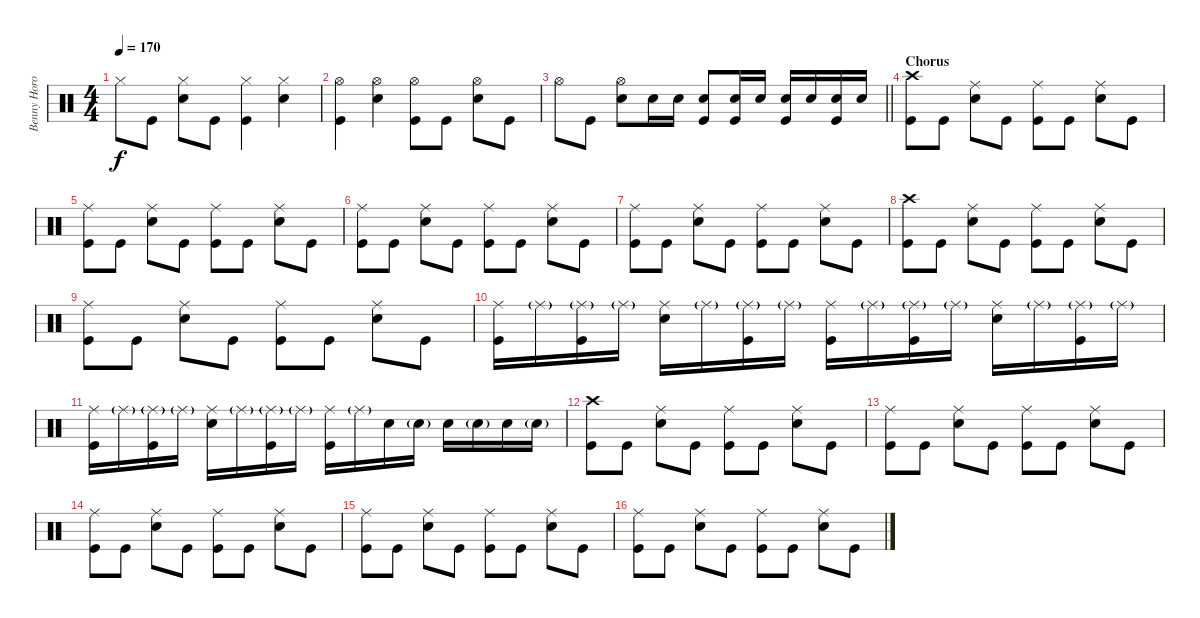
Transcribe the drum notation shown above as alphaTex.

\track ("Benny Horowitz" "Benny Horo") {instrument percussion}
\staff {score}
\articulation defaults
\ts (4 4)
\tempo 170
\clef neutral
\ks c "Hi-Hat (closed)".8{dy f} "Kick (hit)".8
("Snare (hit) 2" "Hi-Hat (closed)").8 "Kick (hit)".8 ("Kick (hit)" "Hi-Hat (closed)").4 ("Snare (hit) 2" "Hi-Hat (closed)").4 |
("Kick (hit)" "Hi-Hat (open)").4 ("Snare (hit) 2" "Hi-Hat (open)").4 ("Kick (hit)" "Hi-Hat (open)").8 "Kick (hit)".8 ("Snare (hit) 2" "Hi-Hat (open)").8 "Kick (hit)".8 |
\barLineRight lightlight "Hi-Hat (open)".8 "Kick (hit)".8
("Snare (hit) 2" "Hi-Hat (open)").8 "Snare (hit) 2".16 "Snare (hit) 2".16 ("Snare (hit) 2" "Kick (hit)").8 ("Snare (hit) 2" "Kick (hit)").16 "Snare (hit) 2".16 ("Snare (hit) 2" "Kick (hit)").16 "Snare (hit) 2".16 ("Snare (hit) 2" "Kick (hit)").16 "Snare (hit) 2".16 |
\section ("" "Chorus")
("Crash high (hit)" "Kick (hit)").8 "Kick (hit)".8 ("Snare (hit) 2" "Ride (middle)").8 "Kick (hit)".8 ("Kick (hit)" "Ride (middle)").8 "Kick (hit)".8 ("Snare (hit) 2" "Ride (middle)").8 "Kick (hit)".8 |
("Kick (hit)" "Ride (middle)").8 "Kick (hit)".8 ("Snare (hit) 2" "Ride (middle)").8 "Kick (hit)".8 ("Kick (hit)" "Ride (middle)").8 "Kick (hit)".8 ("Snare (hit) 2" "Ride (middle)").8 "Kick (hit)".8 |
("Kick (hit)" "Ride (middle)").8 "Kick (hit)".8 ("Snare (hit) 2" "Ride (middle)").8 "Kick (hit)".8 ("Kick (hit)" "Ride (middle)").8 "Kick (hit)".8 ("Snare (hit) 2" "Ride (middle)").8 "Kick (hit)".8 |
("Kick (hit)" "Ride (middle)").8 "Kick (hit)".8 ("Snare (hit) 2" "Ride (middle)").8 "Kick (hit)".8 ("Kick (hit)" "Ride (middle)").8 "Kick (hit)".8 ("Snare (hit) 2" "Ride (middle)").8 "Kick (hit)".8 |
("Crash high (hit)" "Kick (hit)").8 "Kick (hit)".8 ("Snare (hit) 2" "Ride (middle)").8 "Kick (hit)".8 ("Kick (hit)" "Ride (middle)").8 "Kick (hit)".8 ("Snare (hit) 2" "Ride (middle)").8 "Kick (hit)".8 |
("Kick (hit)" "Ride (middle)").8 "Kick (hit)".8 ("Snare (hit) 2" "Ride (middle)").8 "Kick (hit)".8 ("Kick (hit)" "Ride (middle)").8 "Kick (hit)".8 ("Snare (hit) 2" "Ride (middle)").8 "Kick (hit)".8 |
("Kick (hit)" "Ride (middle)").16 "Ride (middle)"{g}.16 ("Kick (hit)" "Ride (middle)"{g}).16 "Ride (middle)"{g}.16 ("Snare (hit) 2" "Ride (middle)").16 "Ride (middle)"{g}.16 ("Kick (hit)" "Ride (middle)"{g}).16 "Ride (middle)"{g}.16 ("Kick (hit)" "Ride (middle)").16 "Ride (middle)"{g}.16 ("Kick (hit)" "Ride (middle)"{g}).16 "Ride (middle)"{g}.16 ("Snare (hit) 2" "Ride (middle)").16 "Ride (middle)"{g}.16 ("Kick (hit)" "Ride (middle)"{g}).16 "Ride (middle)"{g}.16 |
("Kick (hit)" "Ride (middle)").16 "Ride (middle)"{g}.16 ("Kick (hit)" "Ride (middle)"{g}).16 "Ride (middle)"{g}.16 ("Snare (hit) 2" "Ride (middle)").16 "Ride (middle)"{g}.16 ("Kick (hit)" "Ride (middle)"{g}).16 "Ride (middle)"{g}.16 ("Kick (hit)" "Ride (middle)").16 "Ride (middle)"{g}.16 "Snare (hit) 2".16 "Snare (hit) 2"{g}.16 "Snare (hit) 2".16 "Snare (hit) 2"{g}.16 "Snare (hit) 2".16 "Snare (hit) 2"{g}.16 |
("Crash high (hit)" "Kick (hit)").8 "Kick (hit)".8 ("Snare (hit) 2" "Ride (middle)").8 "Kick (hit)".8 ("Kick (hit)" "Ride (middle)").8 "Kick (hit)".8 ("Snare (hit) 2" "Ride (middle)").8 "Kick (hit)".8 |
("Kick (hit)" "Ride (middle)").8 "Kick (hit)".8 ("Snare (hit) 2" "Ride (middle)").8 "Kick (hit)".8 ("Kick (hit)" "Ride (middle)").8 "Kick (hit)".8 ("Snare (hit) 2" "Ride (middle)").8 "Kick (hit)".8 |
("Kick (hit)" "Ride (middle)").8 "Kick (hit)".8 ("Snare (hit) 2" "Ride (middle)").8 "Kick (hit)".8 ("Kick (hit)" "Ride (middle)").8 "Kick (hit)".8 ("Snare (hit) 2" "Ride (middle)").8 "Kick (hit)".8 |
("Kick (hit)" "Ride (middle)").8 "Kick (hit)".8 ("Snare (hit) 2" "Ride (middle)").8 "Kick (hit)".8 ("Kick (hit)" "Ride (middle)").8 "Kick (hit)".8 ("Snare (hit) 2" "Ride (middle)").8 "Kick (hit)".8 |
("Kick (hit)" "Ride (middle)").8 "Kick (hit)".8 ("Snare (hit) 2" "Ride (middle)").8 "Kick (hit)".8 ("Kick (hit)" "Ride (middle)").8 "Kick (hit)".8 ("Snare (hit) 2" "Ride (middle)").8 "Kick (hit)".8
